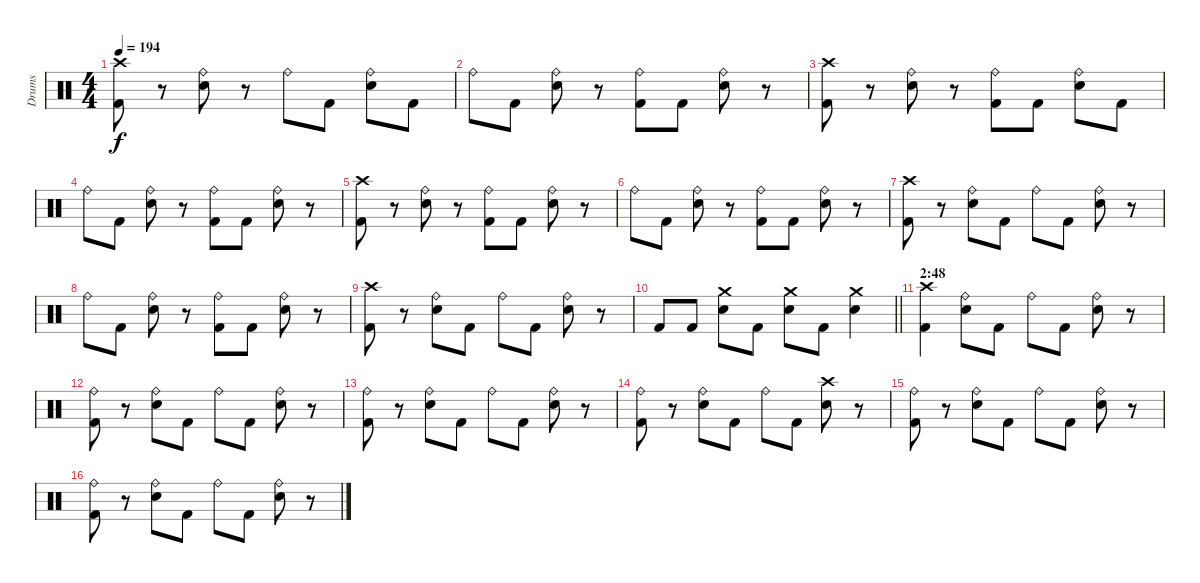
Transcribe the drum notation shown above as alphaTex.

\track ("Drums" "Drums") {instrument percussion}
\staff {score}
\articulation defaults
\ts (4 4)
\tempo 194
\clef neutral
\ks c
("Crash high (hit)" "Kick (hit) 2").8{dy f} r.8 ("Ride (bell)" "Snare (hit) 2").8 r.8 "Ride (bell)".8 "Kick (hit) 2".8 ("Ride (bell)" "Snare (hit) 2").8 "Kick (hit) 2".8 |
"Ride (bell)".8 "Kick (hit) 2".8 ("Ride (bell)" "Snare (hit) 2").8 r.8 ("Ride (bell)" "Kick (hit) 2").8 "Kick (hit) 2".8 ("Ride (bell)" "Snare (hit) 2").8 r.8 |
("Crash high (hit)" "Kick (hit) 2").8 r.8 ("Ride (bell)" "Snare (hit) 2").8 r.8 ("Ride (bell)" "Kick (hit) 2").8 "Kick (hit) 2".8 ("Ride (bell)" "Snare (hit) 2").8 "Kick (hit) 2".8 |
"Ride (bell)".8 "Kick (hit) 2".8 ("Ride (bell)" "Snare (hit) 2").8 r.8 ("Ride (bell)" "Kick (hit) 2").8 "Kick (hit) 2".8 ("Ride (bell)" "Snare (hit) 2").8 r.8 |
("Crash high (hit)" "Kick (hit) 2").8 r.8 ("Ride (bell)" "Snare (hit) 2").8 r.8 ("Ride (bell)" "Kick (hit) 2").8 "Kick (hit) 2".8 ("Ride (bell)" "Snare (hit) 2").8 r.8 |
"Ride (bell)".8 "Kick (hit) 2".8 ("Ride (bell)" "Snare (hit) 2").8 r.8 ("Ride (bell)" "Kick (hit) 2").8 "Kick (hit) 2".8 ("Ride (bell)" "Snare (hit) 2").8 r.8 |
("Crash high (hit)" "Kick (hit) 2").8 r.8 ("Ride (bell)" "Snare (hit) 2").8 "Kick (hit) 2".8 "Ride (bell)".8 "Kick (hit) 2".8 ("Ride (bell)" "Snare (hit) 2").8 r.8 |
"Ride (bell)".8 "Kick (hit) 2".8 ("Ride (bell)" "Snare (hit) 2").8 r.8 ("Ride (bell)" "Kick (hit) 2").8 "Kick (hit) 2".8 ("Ride (bell)" "Snare (hit) 2").8 r.8 |
("Crash high (hit)" "Kick (hit) 2").8 r.8 ("Ride (bell)" "Snare (hit) 2").8 "Kick (hit) 2".8 "Ride (bell)".8 "Kick (hit) 2".8 ("Ride (bell)" "Snare (hit) 2").8 r.8 |
\barLineRight lightlight "Kick (hit) 2".8 "Kick (hit) 2".8
("Crash medium (hit)" "Snare (hit) 2").8 "Kick (hit) 2".8 ("Crash medium (hit)" "Snare (hit) 2").8 "Kick (hit) 2".8 ("Crash medium (hit)" "Snare (hit) 2").4 |
\section ("" "2:48")
("Crash high (hit)" "Kick (hit) 2").4 ("Ride (bell)" "Snare (hit) 2").8 "Kick (hit) 2".8 "Ride (bell)".8 "Kick (hit) 2".8 ("Ride (bell)" "Snare (hit) 2").8 r.8 |
("Ride (bell)" "Kick (hit) 2").8 r.8 ("Ride (bell)" "Snare (hit) 2").8 "Kick (hit) 2".8 "Ride (bell)".8 "Kick (hit) 2".8 ("Ride (bell)" "Snare (hit) 2").8 r.8 |
("Ride (bell)" "Kick (hit) 2").8 r.8 ("Ride (bell)" "Snare (hit) 2").8 "Kick (hit) 2".8 "Ride (bell)".8 "Kick (hit) 2".8 ("Ride (bell)" "Snare (hit) 2").8 r.8 |
("Ride (bell)" "Kick (hit) 2").8 r.8 ("Ride (bell)" "Snare (hit) 2").8 "Kick (hit) 2".8 "Ride (bell)".8 "Kick (hit) 2".8 ("Crash high (hit)" "Snare (hit) 2").8 r.8 |
("Ride (bell)" "Kick (hit) 2").8 r.8 ("Ride (bell)" "Snare (hit) 2").8 "Kick (hit) 2".8 "Ride (bell)".8 "Kick (hit) 2".8 ("Ride (bell)" "Snare (hit) 2").8 r.8 |
("Ride (bell)" "Kick (hit) 2").8 r.8 ("Ride (bell)" "Snare (hit) 2").8 "Kick (hit) 2".8 "Ride (bell)".8 "Kick (hit) 2".8 ("Ride (bell)" "Snare (hit) 2").8 r.8
